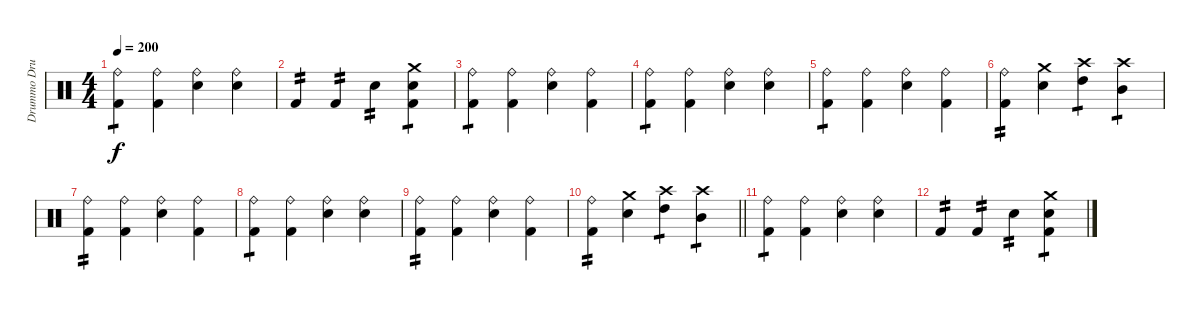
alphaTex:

\track ("Drummo Drummer" "Drummo Dru") {instrument percussion}
\staff {score}
\articulation defaults
\ts (4 4)
\tempo 200
\clef neutral
\ks c
("Ride (bell)" "Kick (hit) 2").4{tp 1 dy f} ("Ride (bell)" "Kick (hit) 2").4 ("Ride (bell)" "Electric Snare (hit)").4 ("Ride (bell)" "Electric Snare (hit)").4 |
"Kick (hit) 2".4{tp 2} "Kick (hit) 2".4{tp 2} "Electric Snare (hit)".4{tp 2} ("Crash medium (hit)" "Electric Snare (hit)" "Kick (hit) 2").4{tp 1} |
("Ride (bell)" "Kick (hit) 2").4{tp 1} ("Ride (bell)" "Kick (hit) 2").4 ("Ride (bell)" "Electric Snare (hit)").4 ("Ride (bell)" "Kick (hit) 2").4 |
("Ride (bell)" "Kick (hit) 2").4{tp 1} ("Ride (bell)" "Kick (hit) 2").4 ("Ride (bell)" "Electric Snare (hit)").4 ("Ride (bell)" "Electric Snare (hit)").4 |
("Ride (bell)" "Kick (hit) 2").4{tp 1} ("Ride (bell)" "Kick (hit) 2").4 ("Ride (bell)" "Electric Snare (hit)").4 ("Ride (bell)" "Kick (hit) 2").4 |
("Ride (bell)" "Kick (hit) 2").4{tp 2} ("Crash medium (hit)" "Electric Snare (hit)").4 ("Crash high (hit)" "High Tom (hit)").4{tp 1} ("Crash high (hit)" "Mid Tom (hit)").4{tp 1} |
("Ride (bell)" "Kick (hit) 2").4{tp 2} ("Ride (bell)" "Kick (hit) 2").4 ("Ride (bell)" "Electric Snare (hit)").4 ("Ride (bell)" "Kick (hit) 2").4 |
("Ride (bell)" "Kick (hit) 2").4{tp 1} ("Ride (bell)" "Kick (hit) 2").4 ("Ride (bell)" "Electric Snare (hit)").4 ("Ride (bell)" "Electric Snare (hit)").4 |
("Ride (bell)" "Kick (hit) 2").4{tp 2} ("Ride (bell)" "Kick (hit) 2").4 ("Ride (bell)" "Electric Snare (hit)").4 ("Ride (bell)" "Kick (hit) 2").4 |
\barLineRight lightlight
("Ride (bell)" "Kick (hit) 2").4{tp 2} ("Crash medium (hit)" "Electric Snare (hit)").4 ("Crash high (hit)" "High Tom (hit)").4{tp 1} ("Crash high (hit)" "Mid Tom (hit)").4{tp 1} |
("Ride (bell)" "Kick (hit) 2").4{tp 1} ("Ride (bell)" "Kick (hit) 2").4 ("Ride (bell)" "Electric Snare (hit)").4 ("Ride (bell)" "Electric Snare (hit)").4 |
"Kick (hit) 2".4{tp 2} "Kick (hit) 2".4{tp 2} "Electric Snare (hit)".4{tp 2} ("Crash medium (hit)" "Electric Snare (hit)" "Kick (hit) 2").4{tp 1}
